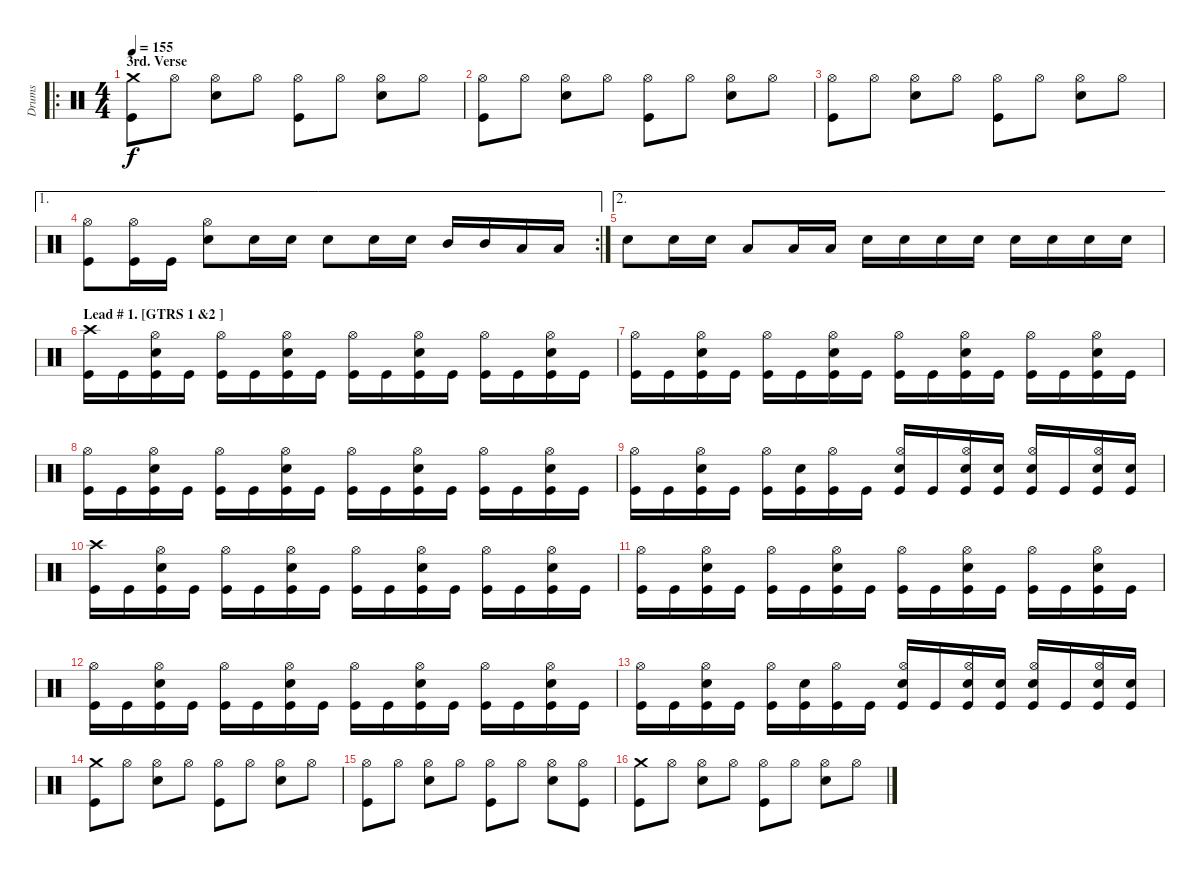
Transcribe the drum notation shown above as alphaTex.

\track ("Drums" "Drums") {instrument percussion}
\staff {score}
\articulation defaults
\ro
\ts (4 4)
\section ("" "3rd. Verse")
\tempo 155
\clef neutral
\ks c
("Crash medium (hit)" "Kick (hit)").8{dy f} "Hi-Hat (open)".8 ("Hi-Hat (open)" "Snare (hit) 2").8 "Hi-Hat (open)".8 ("Hi-Hat (open)" "Kick (hit)").8 "Hi-Hat (open)".8 ("Hi-Hat (open)" "Snare (hit) 2").8 "Hi-Hat (open)".8 |
("Hi-Hat (open)" "Kick (hit)").8 "Hi-Hat (open)".8 ("Hi-Hat (open)" "Snare (hit) 2").8 "Hi-Hat (open)".8 ("Hi-Hat (open)" "Kick (hit)").8 "Hi-Hat (open)".8 ("Hi-Hat (open)" "Snare (hit) 2").8 "Hi-Hat (open)".8 |
("Hi-Hat (open)" "Kick (hit)").8 "Hi-Hat (open)".8 ("Hi-Hat (open)" "Snare (hit) 2").8 "Hi-Hat (open)".8 ("Hi-Hat (open)" "Kick (hit)").8 "Hi-Hat (open)".8 ("Hi-Hat (open)" "Snare (hit) 2").8 "Hi-Hat (open)".8 |
\ae 1
\rc 2
("Hi-Hat (open)" "Kick (hit)").8 ("Hi-Hat (open)" "Kick (hit)").16 "Kick (hit)".16 ("Hi-Hat (open)" "Snare (hit) 2").8 "Snare (hit) 2".16 "Snare (hit) 2".16 "Snare (hit) 2".8 "Snare (hit) 2".16 "Snare (hit) 2".16 "Mid Tom (hit)".16 "Mid Tom (hit)".16 "Low Tom (hit)".16 "Low Tom (hit)".16 |
\ae 2 "Snare (hit) 2".8 "Snare (hit) 2".16 "Snare (hit) 2".16 "Low Tom (hit)".8 "Low Tom (hit)".16 "Low Tom (hit)".16 "Snare (hit) 2".16 "Snare (hit) 2".16 "Snare (hit) 2".16 "Snare (hit) 2".16 "Snare (hit) 2".16 "Snare (hit) 2".16 "Snare (hit) 2".16 "Snare (hit) 2".16
|
\section ("" "Lead # 1. [GTRS 1 &2 ]")
("Crash high (hit)" "Kick (hit)").16 "Kick (hit)".16 ("Hi-Hat (open)" "Snare (hit) 2" "Kick (hit)").16 "Kick (hit)".16 ("Hi-Hat (open)" "Kick (hit)").16 "Kick (hit)".16 ("Hi-Hat (open)" "Snare (hit) 2" "Kick (hit)").16 "Kick (hit)".16 ("Hi-Hat (open)" "Kick (hit)").16 "Kick (hit)".16 ("Hi-Hat (open)" "Snare (hit) 2" "Kick (hit)").16 "Kick (hit)".16 ("Hi-Hat (open)" "Kick (hit)").16 "Kick (hit)".16 ("Hi-Hat (open)" "Snare (hit) 2" "Kick (hit)").16 "Kick (hit)".16 |
("Hi-Hat (open)" "Kick (hit)").16 "Kick (hit)".16 ("Hi-Hat (open)" "Snare (hit) 2" "Kick (hit)").16 "Kick (hit)".16 ("Hi-Hat (open)" "Kick (hit)").16 "Kick (hit)".16 ("Hi-Hat (open)" "Snare (hit) 2" "Kick (hit)").16 "Kick (hit)".16 ("Hi-Hat (open)" "Kick (hit)").16 "Kick (hit)".16 ("Hi-Hat (open)" "Snare (hit) 2" "Kick (hit)").16 "Kick (hit)".16 ("Hi-Hat (open)" "Kick (hit)").16 "Kick (hit)".16 ("Hi-Hat (open)" "Snare (hit) 2" "Kick (hit)").16 "Kick (hit)".16 |
("Hi-Hat (open)" "Kick (hit)").16 "Kick (hit)".16 ("Hi-Hat (open)" "Snare (hit) 2" "Kick (hit)").16 "Kick (hit)".16 ("Hi-Hat (open)" "Kick (hit)").16 "Kick (hit)".16 ("Hi-Hat (open)" "Snare (hit) 2" "Kick (hit)").16 "Kick (hit)".16 ("Hi-Hat (open)" "Kick (hit)").16 "Kick (hit)".16 ("Hi-Hat (open)" "Snare (hit) 2" "Kick (hit)").16 "Kick (hit)".16 ("Hi-Hat (open)" "Kick (hit)").16 "Kick (hit)".16 ("Hi-Hat (open)" "Snare (hit) 2" "Kick (hit)").16 "Kick (hit)".16 |
("Hi-Hat (open)" "Kick (hit)").16 "Kick (hit)".16 ("Hi-Hat (open)" "Snare (hit) 2" "Kick (hit)").16 "Kick (hit)".16 ("Hi-Hat (open)" "Kick (hit)").16 ("Snare (hit) 2" "Kick (hit)").16 ("Hi-Hat (open)" "Kick (hit)").16 "Kick (hit)".16 ("Hi-Hat (open)" "Snare (hit) 2" "Kick (hit)").16 "Kick (hit)".16 ("Hi-Hat (open)" "Snare (hit) 2" "Kick (hit)").16 ("Snare (hit) 2" "Kick (hit)").16 ("Hi-Hat (open)" "Snare (hit) 2" "Kick (hit)").16 "Kick (hit)".16 ("Hi-Hat (open)" "Snare (hit) 2" "Kick (hit)").16 ("Snare (hit) 2" "Kick (hit)").16 |
("Crash high (hit)" "Kick (hit)").16 "Kick (hit)".16 ("Hi-Hat (open)" "Snare (hit) 2" "Kick (hit)").16 "Kick (hit)".16 ("Hi-Hat (open)" "Kick (hit)").16 "Kick (hit)".16 ("Hi-Hat (open)" "Snare (hit) 2" "Kick (hit)").16 "Kick (hit)".16 ("Hi-Hat (open)" "Kick (hit)").16 "Kick (hit)".16 ("Hi-Hat (open)" "Snare (hit) 2" "Kick (hit)").16 "Kick (hit)".16 ("Hi-Hat (open)" "Kick (hit)").16 "Kick (hit)".16 ("Hi-Hat (open)" "Snare (hit) 2" "Kick (hit)").16 "Kick (hit)".16 |
("Hi-Hat (open)" "Kick (hit)").16 "Kick (hit)".16 ("Hi-Hat (open)" "Snare (hit) 2" "Kick (hit)").16 "Kick (hit)".16 ("Hi-Hat (open)" "Kick (hit)").16 "Kick (hit)".16 ("Hi-Hat (open)" "Snare (hit) 2" "Kick (hit)").16 "Kick (hit)".16 ("Hi-Hat (open)" "Kick (hit)").16 "Kick (hit)".16 ("Hi-Hat (open)" "Snare (hit) 2" "Kick (hit)").16 "Kick (hit)".16 ("Hi-Hat (open)" "Kick (hit)").16 "Kick (hit)".16 ("Hi-Hat (open)" "Snare (hit) 2" "Kick (hit)").16 "Kick (hit)".16 |
("Hi-Hat (open)" "Kick (hit)").16 "Kick (hit)".16 ("Hi-Hat (open)" "Snare (hit) 2" "Kick (hit)").16 "Kick (hit)".16 ("Hi-Hat (open)" "Kick (hit)").16 "Kick (hit)".16 ("Hi-Hat (open)" "Snare (hit) 2" "Kick (hit)").16 "Kick (hit)".16 ("Hi-Hat (open)" "Kick (hit)").16 "Kick (hit)".16 ("Hi-Hat (open)" "Snare (hit) 2" "Kick (hit)").16 "Kick (hit)".16 ("Hi-Hat (open)" "Kick (hit)").16 "Kick (hit)".16 ("Hi-Hat (open)" "Snare (hit) 2" "Kick (hit)").16 "Kick (hit)".16 |
("Hi-Hat (open)" "Kick (hit)").16 "Kick (hit)".16 ("Hi-Hat (open)" "Snare (hit) 2" "Kick (hit)").16 "Kick (hit)".16 ("Hi-Hat (open)" "Kick (hit)").16 ("Snare (hit) 2" "Kick (hit)").16 ("Hi-Hat (open)" "Kick (hit)").16 "Kick (hit)".16 ("Hi-Hat (open)" "Snare (hit) 2" "Kick (hit)").16 "Kick (hit)".16 ("Hi-Hat (open)" "Snare (hit) 2" "Kick (hit)").16 ("Snare (hit) 2" "Kick (hit)").16 ("Hi-Hat (open)" "Snare (hit) 2" "Kick (hit)").16 "Kick (hit)".16 ("Hi-Hat (open)" "Snare (hit) 2" "Kick (hit)").16 ("Snare (hit) 2" "Kick (hit)").16 |
("Crash medium (hit)" "Kick (hit)").8 "Hi-Hat (open)".8 ("Hi-Hat (open)" "Snare (hit) 2").8 "Hi-Hat (open)".8 ("Hi-Hat (open)" "Kick (hit)").8 "Hi-Hat (open)".8 ("Hi-Hat (open)" "Snare (hit) 2").8 "Hi-Hat (open)".8 |
("Hi-Hat (open)" "Kick (hit)").8 "Hi-Hat (open)".8 ("Hi-Hat (open)" "Snare (hit) 2").8 "Hi-Hat (open)".8 ("Hi-Hat (open)" "Kick (hit)").8 "Hi-Hat (open)".8 ("Hi-Hat (open)" "Snare (hit) 2").8 ("Hi-Hat (open)" "Kick (hit)").8 |
("Crash medium (hit)" "Kick (hit)").8 "Hi-Hat (open)".8 ("Hi-Hat (open)" "Snare (hit) 2").8 "Hi-Hat (open)".8 ("Hi-Hat (open)" "Kick (hit)").8 "Hi-Hat (open)".8 ("Hi-Hat (open)" "Snare (hit) 2").8 "Hi-Hat (open)".8
